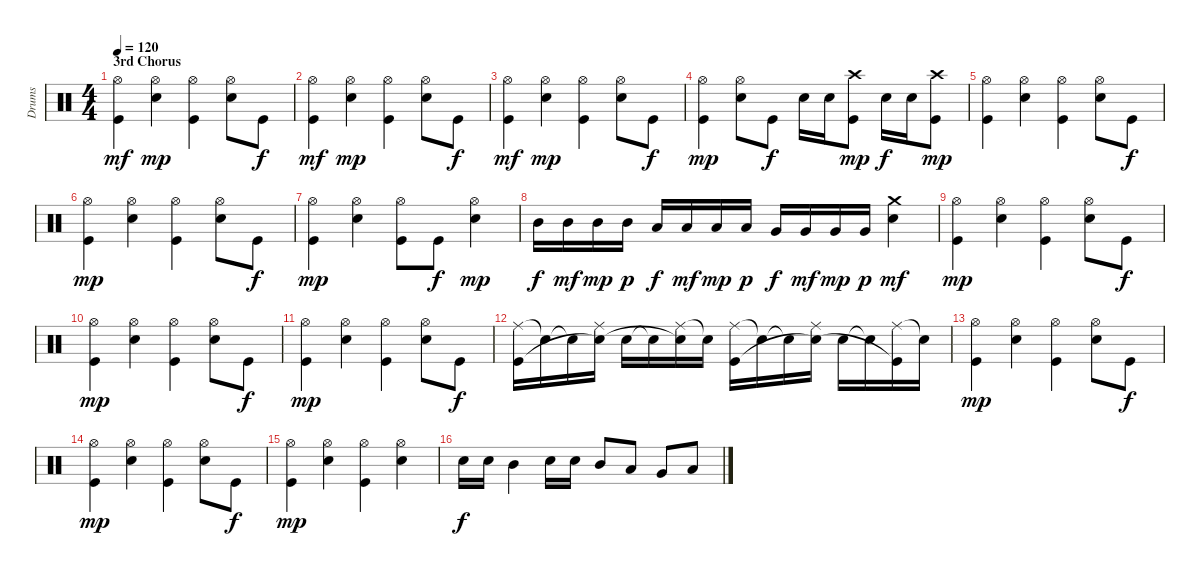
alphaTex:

\track ("Drums" "Drums") {instrument percussion}
\staff {score}
\articulation defaults
\ts (4 4)
\section ("" "3rd Chorus")
\tempo 120
\clef neutral
\ks c
("Hi-Hat (open)" "Kick (hit)").4{dy mf} ("Hi-Hat (open)" "Electric Snare (hit)").4{dy mp} ("Hi-Hat (open)" "Kick (hit)").4 ("Hi-Hat (open)" "Electric Snare (hit)").8 "Kick (hit)".8{dy f} |
("Hi-Hat (open)" "Kick (hit)").4{dy mf} ("Hi-Hat (open)" "Electric Snare (hit)").4{dy mp} ("Hi-Hat (open)" "Kick (hit)").4 ("Hi-Hat (open)" "Electric Snare (hit)").8 "Kick (hit)".8{dy f} |
("Hi-Hat (open)" "Kick (hit)").4{dy mf} ("Hi-Hat (open)" "Electric Snare (hit)").4{dy mp} ("Hi-Hat (open)" "Kick (hit)").4 ("Hi-Hat (open)" "Electric Snare (hit)").8 "Kick (hit)".8{dy f} |
("Hi-Hat (open)" "Kick (hit)").4{dy mp} ("Hi-Hat (open)" "Electric Snare (hit)").8 "Kick (hit)".8{dy f} "Electric Snare (hit)".16 "Electric Snare (hit)".16 ("Crash high (hit)" "Kick (hit)").8{dy mp} "Electric Snare (hit)".16{dy f} "Electric Snare (hit)".16 ("Crash high (hit)" "Kick (hit)").8{dy mp} |
("Hi-Hat (open)" "Kick (hit)").4 ("Hi-Hat (open)" "Electric Snare (hit)").4 ("Hi-Hat (open)" "Kick (hit)").4 ("Hi-Hat (open)" "Electric Snare (hit)").8 "Kick (hit)".8{dy f} |
("Hi-Hat (open)" "Kick (hit)").4{dy mp} ("Hi-Hat (open)" "Electric Snare (hit)").4 ("Hi-Hat (open)" "Kick (hit)").4 ("Hi-Hat (open)" "Electric Snare (hit)").8 "Kick (hit)".8{dy f} |
("Hi-Hat (open)" "Kick (hit)").4{dy mp} ("Hi-Hat (open)" "Electric Snare (hit)").4 ("Hi-Hat (open)" "Kick (hit)").8 "Kick (hit)".8{dy f} ("Hi-Hat (open)" "Electric Snare (hit)").4{dy mp} |
"Mid Tom (hit)".16{dy f} "Mid Tom (hit)".16{dy mf} "Mid Tom (hit)".16{dy mp} "Mid Tom (hit)".16{dy p} "Low Tom (hit)".16{dy f} "Low Tom (hit)".16{dy mf} "Low Tom (hit)".16{dy mp} "Low Tom (hit)".16{dy p} "Very Low Tom (hit)".16{dy f} "Very Low Tom (hit)".16{dy mf} "Very Low Tom (hit)".16{dy mp} "Very Low Tom (hit)".16{dy p} ("Crash medium (hit)" "Electric Snare (hit)").4{dy mf} |
("Hi-Hat (open)" "Kick (hit)").4{dy mp} ("Hi-Hat (open)" "Electric Snare (hit)").4 ("Hi-Hat (open)" "Kick (hit)").4 ("Hi-Hat (open)" "Electric Snare (hit)").8 "Kick (hit)".8{dy f} |
("Hi-Hat (open)" "Kick (hit)").4{dy mp} ("Hi-Hat (open)" "Electric Snare (hit)").4 ("Hi-Hat (open)" "Kick (hit)").4 ("Hi-Hat (open)" "Electric Snare (hit)").8 "Kick (hit)".8{dy f} |
("Hi-Hat (open)" "Kick (hit)").4{dy mp} ("Hi-Hat (open)" "Electric Snare (hit)").4 ("Hi-Hat (open)" "Kick (hit)").4 ("Hi-Hat (open)" "Electric Snare (hit)").8 "Kick (hit)".8{dy f} |
("Ride (middle)" "Kick (hit)").16 "Snare (hit)"{t}.16 "Snare (hit)"{t}.16 ("Ride (middle)" "Snare (hit)"{t}).16 "Electric Snare (hit)".16 "Snare (hit)"{t}.16 ("Ride (middle)" "Snare (hit)"{t}).16 "Snare (hit)"{t}.16 ("Ride (middle)" "Kick (hit)").16 "Snare (hit)"{t}.16 "Snare (hit)"{t}.16 ("Ride (middle)" "Snare (hit)"{t}).16 "Electric Snare (hit)".16 "Snare (hit)"{t}.16 ("Ride (middle)" "Kick (hit)"{t}).16 "Snare (hit)"{t}.16 |
("Hi-Hat (open)" "Kick (hit)").4{dy mp} ("Hi-Hat (open)" "Electric Snare (hit)").4 ("Hi-Hat (open)" "Kick (hit)").4 ("Hi-Hat (open)" "Electric Snare (hit)").8 "Kick (hit)".8{dy f} |
("Hi-Hat (open)" "Kick (hit)").4{dy mp} ("Hi-Hat (open)" "Electric Snare (hit)").4 ("Hi-Hat (open)" "Kick (hit)").4 ("Hi-Hat (open)" "Electric Snare (hit)").8 "Kick (hit)".8{dy f} |
("Hi-Hat (open)" "Kick (hit)").4{dy mp} ("Hi-Hat (open)" "Electric Snare (hit)").4 ("Hi-Hat (open)" "Kick (hit)").4 ("Hi-Hat (open)" "Electric Snare (hit)").4 |
"Electric Snare (hit)".16{dy f} "Electric Snare (hit)".16 "Mid Tom (hit)".4 "Electric Snare (hit)".16 "Electric Snare (hit)".16 "Mid Tom (hit)".8 "Low Tom (hit)".8 "Very Low Tom (hit)".8 "Low Floor Tom (hit)".8
